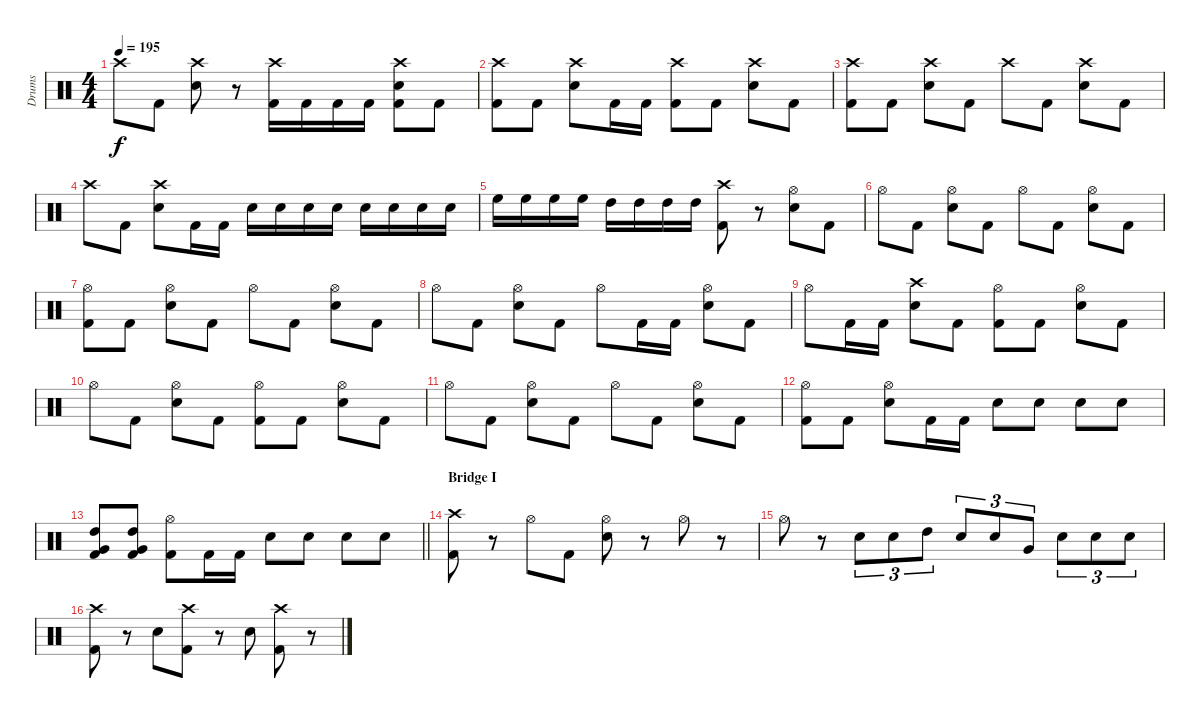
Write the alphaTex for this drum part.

\track ("Drums" "Drums") {instrument percussion}
\staff {score}
\articulation defaults
\ts (4 4)
\tempo 195
\clef neutral
\ks c "Crash high (hit)".8{dy f} "Kick (hit) 2".8
("Crash high (hit)" "Snare (hit) 2").8 r.8 ("Crash high (hit)" "Kick (hit) 2").16 "Kick (hit) 2".16 "Kick (hit) 2".16 "Kick (hit) 2".16 ("Crash high (hit)" "Snare (hit) 2" "Kick (hit) 2").8 "Kick (hit) 2".8 |
("Crash high (hit)" "Kick (hit) 2").8 "Kick (hit) 2".8 ("Crash high (hit)" "Snare (hit) 2").8 "Kick (hit) 2".16 "Kick (hit) 2".16 ("Crash high (hit)" "Kick (hit) 2").8 "Kick (hit) 2".8 ("Crash high (hit)" "Snare (hit) 2").8 "Kick (hit) 2".8 |
("Crash high (hit)" "Kick (hit) 2").8 "Kick (hit) 2".8 ("Crash high (hit)" "Snare (hit) 2").8 "Kick (hit) 2".8 "Crash high (hit)".8 "Kick (hit) 2".8 ("Crash high (hit)" "Snare (hit) 2").8 "Kick (hit) 2".8 |
"Crash high (hit)".8 "Kick (hit) 2".8 ("Crash high (hit)" "Snare (hit) 2").8 "Kick (hit) 2".16 "Kick (hit) 2".16 "Snare (hit) 2".16 "Snare (hit) 2".16 "Snare (hit) 2".16 "Snare (hit) 2".16 "Snare (hit) 2".16 "Snare (hit) 2".16 "Snare (hit) 2".16 "Snare (hit) 2".16 |
"High Floor Tom (hit)".16 "High Floor Tom (hit)".16 "High Floor Tom (hit)".16 "High Floor Tom (hit)".16 "High Tom (hit)".16 "High Tom (hit)".16 "High Tom (hit)".16 "High Tom (hit)".16 ("Crash high (hit)" "Kick (hit) 2").8 r.8 ("Hi-Hat (open)" "Snare (hit) 2").8 "Kick (hit) 2".8 |
"Hi-Hat (open)".8 "Kick (hit) 2".8 ("Hi-Hat (open)" "Snare (hit) 2").8 "Kick (hit) 2".8 "Hi-Hat (open)".8 "Kick (hit) 2".8 ("Hi-Hat (open)" "Snare (hit) 2").8 "Kick (hit) 2".8 |
("Hi-Hat (open)" "Kick (hit) 2").8 "Kick (hit) 2".8 ("Hi-Hat (open)" "Snare (hit) 2").8 "Kick (hit) 2".8 "Hi-Hat (open)".8 "Kick (hit) 2".8 ("Hi-Hat (open)" "Snare (hit) 2").8 "Kick (hit) 2".8 |
"Hi-Hat (open)".8 "Kick (hit) 2".8 ("Hi-Hat (open)" "Snare (hit) 2").8 "Kick (hit) 2".8 "Hi-Hat (open)".8 "Kick (hit) 2".16 "Kick (hit) 2".16 ("Hi-Hat (open)" "Snare (hit) 2").8 "Kick (hit) 2".8 |
"Hi-Hat (open)".8 "Kick (hit) 2".16 "Kick (hit) 2".16 ("Crash high (hit)" "Snare (hit) 2").8 "Kick (hit) 2".8 ("Hi-Hat (open)" "Kick (hit) 2").8 "Kick (hit) 2".8 ("Hi-Hat (open)" "Snare (hit) 2").8 "Kick (hit) 2".8 |
"Hi-Hat (open)".8 "Kick (hit) 2".8 ("Hi-Hat (open)" "Snare (hit) 2").8 "Kick (hit) 2".8 ("Hi-Hat (open)" "Kick (hit) 2").8 "Kick (hit) 2".8 ("Hi-Hat (open)" "Snare (hit) 2").8 "Kick (hit) 2".8 |
"Hi-Hat (open)".8 "Kick (hit) 2".8 ("Hi-Hat (open)" "Snare (hit) 2").8 "Kick (hit) 2".8 "Hi-Hat (open)".8 "Kick (hit) 2".8 ("Hi-Hat (open)" "Snare (hit) 2").8 "Kick (hit) 2".8 |
("Hi-Hat (open)" "Kick (hit) 2").8 "Kick (hit) 2".8 ("Hi-Hat (open)" "Snare (hit) 2").8 "Kick (hit) 2".16 "Kick (hit) 2".16 "Snare (hit) 2".8 "Snare (hit) 2".8 "Snare (hit) 2".8 "Snare (hit) 2".8 |
\barLineRight lightlight
("Very Low Tom (hit)" "High Tom (hit)" "Kick (hit) 2").8 ("Very Low Tom (hit)" "High Tom (hit)" "Kick (hit) 2").8 ("Hi-Hat (open)" "Kick (hit) 2").8 "Kick (hit) 2".16 "Kick (hit) 2".16 "Snare (hit) 2".8 "Snare (hit) 2".8 "Snare (hit) 2".8 "Snare (hit) 2".8 |
\section ("" "Bridge I")
("Crash high (hit)" "Kick (hit) 2").8 r.8 "Hi-Hat (open)".8 "Kick (hit) 2".8 ("Hi-Hat (open)" "Snare (hit) 2").8 r.8 "Hi-Hat (open)".8 r.8 |
"Hi-Hat (open)".8 r.8 "Snare (hit) 2".8{tu (3 2)} "Snare (hit) 2".8{tu (3 2)} "High Tom (hit)".8{tu (3 2)} "Snare (hit) 2".8{tu (3 2)} "Snare (hit) 2".8{tu (3 2)} "Very Low Tom (hit)".8{tu (3 2)} "Snare (hit) 2".8{tu (3 2)} "Snare (hit) 2".8{tu (3 2)} "Snare (hit) 2".8{tu (3 2)} |
("Crash high (hit)" "Kick (hit) 2").8 r.8 "Snare (hit) 2".8 ("Crash high (hit)" "Kick (hit) 2").8 r.8 "Snare (hit) 2".8 ("Crash high (hit)" "Kick (hit) 2").8 r.8
